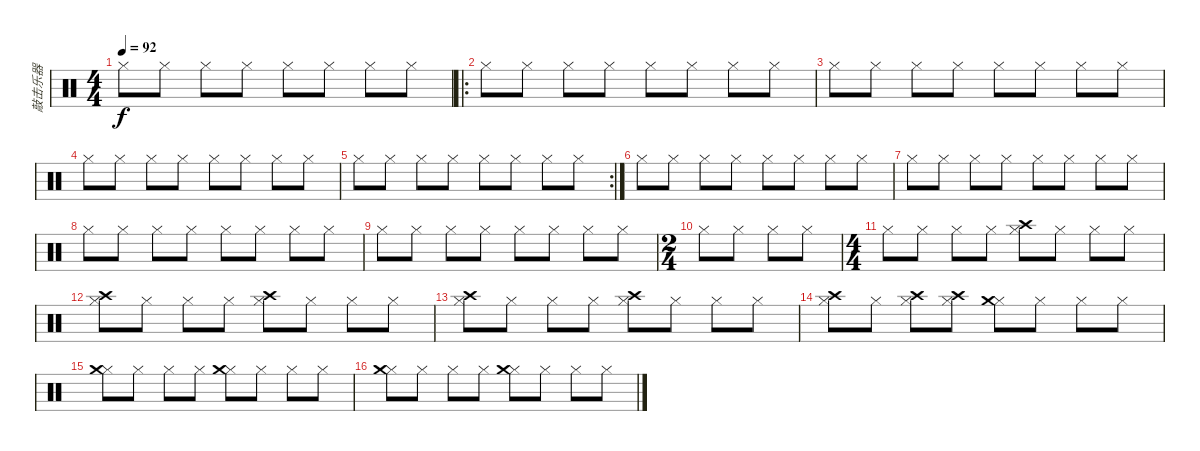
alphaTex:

\track ("敲击乐器" "敲击乐器") {instrument percussion}
\staff {score}
\articulation defaults
\ts (4 4)
\tempo 92
\clef neutral
\ks c "Hi-Hat (closed)".8{dy f} "Hi-Hat (closed)".8 "Hi-Hat (closed)".8 "Hi-Hat (closed)".8 "Hi-Hat (closed)".8 "Hi-Hat (closed)".8 "Hi-Hat (closed)".8 "Hi-Hat (closed)".8
|
\ro "Hi-Hat (closed)".8 "Hi-Hat (closed)".8 "Hi-Hat (closed)".8 "Hi-Hat (closed)".8 "Hi-Hat (closed)".8 "Hi-Hat (closed)".8 "Hi-Hat (closed)".8 "Hi-Hat (closed)".8
|
"Hi-Hat (closed)".8 "Hi-Hat (closed)".8 "Hi-Hat (closed)".8 "Hi-Hat (closed)".8 "Hi-Hat (closed)".8 "Hi-Hat (closed)".8 "Hi-Hat (closed)".8 "Hi-Hat (closed)".8 |
"Hi-Hat (closed)".8 "Hi-Hat (closed)".8 "Hi-Hat (closed)".8 "Hi-Hat (closed)".8 "Hi-Hat (closed)".8 "Hi-Hat (closed)".8 "Hi-Hat (closed)".8 "Hi-Hat (closed)".8 |
\rc 2 "Hi-Hat (closed)".8 "Hi-Hat (closed)".8 "Hi-Hat (closed)".8 "Hi-Hat (closed)".8 "Hi-Hat (closed)".8 "Hi-Hat (closed)".8 "Hi-Hat (closed)".8 "Hi-Hat (closed)".8
|
"Hi-Hat (closed)".8 "Hi-Hat (closed)".8 "Hi-Hat (closed)".8 "Hi-Hat (closed)".8 "Hi-Hat (closed)".8 "Hi-Hat (closed)".8 "Hi-Hat (closed)".8 "Hi-Hat (closed)".8 |
"Hi-Hat (closed)".8 "Hi-Hat (closed)".8 "Hi-Hat (closed)".8 "Hi-Hat (closed)".8 "Hi-Hat (closed)".8 "Hi-Hat (closed)".8 "Hi-Hat (closed)".8 "Hi-Hat (closed)".8 |
"Hi-Hat (closed)".8 "Hi-Hat (closed)".8 "Hi-Hat (closed)".8 "Hi-Hat (closed)".8 "Hi-Hat (closed)".8 "Hi-Hat (closed)".8 "Hi-Hat (closed)".8 "Hi-Hat (closed)".8 |
"Hi-Hat (closed)".8 "Hi-Hat (closed)".8 "Hi-Hat (closed)".8 "Hi-Hat (closed)".8 "Hi-Hat (closed)".8 "Hi-Hat (closed)".8 "Hi-Hat (closed)".8 "Hi-Hat (closed)".8 |
\ts (2 4)
"Hi-Hat (closed)".8 "Hi-Hat (closed)".8 "Hi-Hat (closed)".8 "Hi-Hat (closed)".8 |
\ts (4 4)
"Hi-Hat (closed)".8 "Hi-Hat (closed)".8 "Hi-Hat (closed)".8 "Hi-Hat (closed)".8 ("Hi-Hat (closed)" "Crash high (hit)").8 "Hi-Hat (closed)".8 "Hi-Hat (closed)".8 "Hi-Hat (closed)".8 |
("Hi-Hat (closed)" "Crash high (hit)").8 "Hi-Hat (closed)".8 "Hi-Hat (closed)".8 "Hi-Hat (closed)".8 ("Hi-Hat (closed)" "Crash high (hit)").8 "Hi-Hat (closed)".8 "Hi-Hat (closed)".8 "Hi-Hat (closed)".8 |
("Hi-Hat (closed)" "Crash high (hit)").8 "Hi-Hat (closed)".8 "Hi-Hat (closed)".8 "Hi-Hat (closed)".8 ("Hi-Hat (closed)" "Crash high (hit)").8 "Hi-Hat (closed)".8 "Hi-Hat (closed)".8 "Hi-Hat (closed)".8 |
("Hi-Hat (closed)" "Crash high (hit)").8 "Hi-Hat (closed)".8 ("Hi-Hat (closed)" "Crash high (hit)").8 ("Hi-Hat (closed)" "Crash high (hit)").8 ("Hi-Hat (closed)" "Crash medium (hit)").8 "Hi-Hat (closed)".8 "Hi-Hat (closed)".8 "Hi-Hat (closed)".8 |
("Hi-Hat (closed)" "Crash medium (hit)").8 "Hi-Hat (closed)".8 "Hi-Hat (closed)".8 "Hi-Hat (closed)".8 ("Hi-Hat (closed)" "Crash medium (hit)").8 "Hi-Hat (closed)".8 "Hi-Hat (closed)".8 "Hi-Hat (closed)".8 |
("Hi-Hat (closed)" "Crash medium (hit)").8 "Hi-Hat (closed)".8 "Hi-Hat (closed)".8 "Hi-Hat (closed)".8 ("Hi-Hat (closed)" "Crash medium (hit)").8 "Hi-Hat (closed)".8 "Hi-Hat (closed)".8 "Hi-Hat (closed)".8
